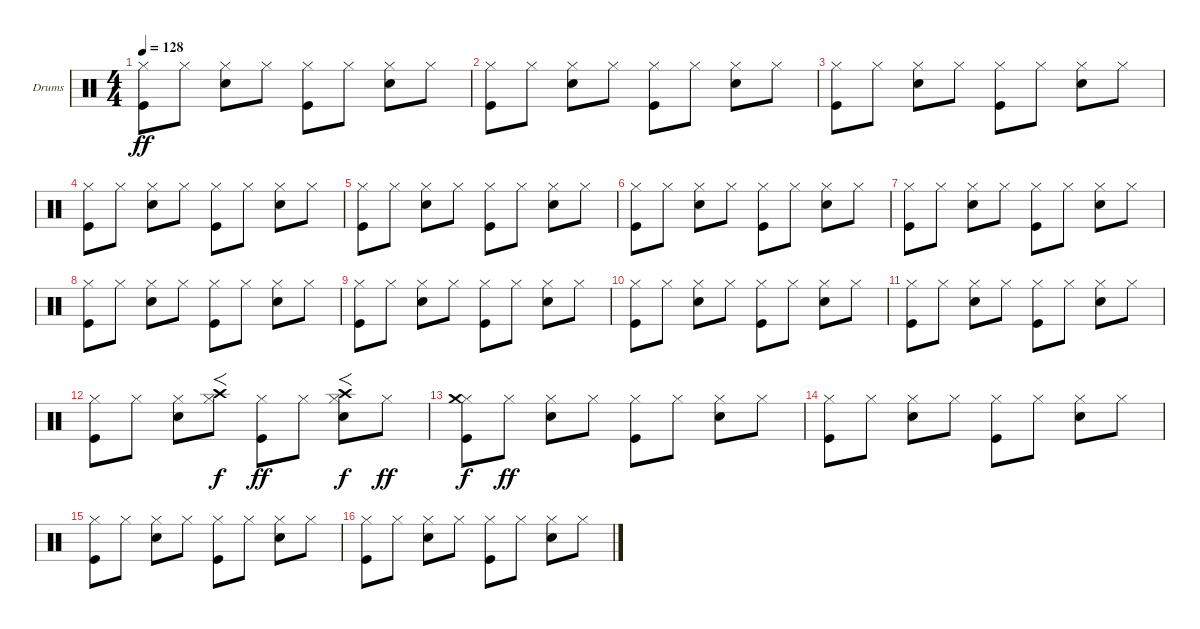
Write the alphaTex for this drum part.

\defaultSystemsLayout 4
\bracketExtendMode groupsimilarinstruments
\firstSystemTrackNameOrientation horizontal
\otherSystemsTrackNameOrientation horizontal
\track ("Drums" "Drums") {instrument percussion}
\staff {score}
\articulation defaults
\ts (4 4)
\tempo 128
\clef neutral
\ks c
("Kick (hit)" "Hi-Hat (closed)").8{dy ff} "Hi-Hat (closed)".8 ("Snare (hit) 2" "Hi-Hat (closed)").8 "Hi-Hat (closed)".8 ("Hi-Hat (closed)" "Kick (hit)").8 "Hi-Hat (closed)".8 ("Snare (hit) 2" "Hi-Hat (closed)").8 "Hi-Hat (closed)".8 |
("Kick (hit)" "Hi-Hat (closed)").8 "Hi-Hat (closed)".8 ("Snare (hit) 2" "Hi-Hat (closed)").8 "Hi-Hat (closed)".8 ("Kick (hit)" "Hi-Hat (closed)").8 "Hi-Hat (closed)".8 ("Snare (hit) 2" "Hi-Hat (closed)").8 "Hi-Hat (closed)".8 |
("Kick (hit)" "Hi-Hat (closed)").8 "Hi-Hat (closed)".8 ("Snare (hit) 2" "Hi-Hat (closed)").8 "Hi-Hat (closed)".8 ("Hi-Hat (closed)" "Kick (hit)").8 "Hi-Hat (closed)".8 ("Snare (hit) 2" "Hi-Hat (closed)").8 "Hi-Hat (closed)".8 |
("Kick (hit)" "Hi-Hat (closed)").8 "Hi-Hat (closed)".8 ("Snare (hit) 2" "Hi-Hat (closed)").8 "Hi-Hat (closed)".8 ("Kick (hit)" "Hi-Hat (closed)").8 "Hi-Hat (closed)".8 ("Snare (hit) 2" "Hi-Hat (closed)").8 "Hi-Hat (closed)".8 |
("Kick (hit)" "Hi-Hat (closed)").8 "Hi-Hat (closed)".8 ("Snare (hit) 2" "Hi-Hat (closed)").8 "Hi-Hat (closed)".8 ("Hi-Hat (closed)" "Kick (hit)").8 "Hi-Hat (closed)".8 ("Snare (hit) 2" "Hi-Hat (closed)").8 "Hi-Hat (closed)".8 |
("Kick (hit)" "Hi-Hat (closed)").8 "Hi-Hat (closed)".8 ("Snare (hit) 2" "Hi-Hat (closed)").8 "Hi-Hat (closed)".8 ("Kick (hit)" "Hi-Hat (closed)").8 "Hi-Hat (closed)".8 ("Snare (hit) 2" "Hi-Hat (closed)").8 "Hi-Hat (closed)".8 |
("Kick (hit)" "Hi-Hat (closed)").8 "Hi-Hat (closed)".8 ("Snare (hit) 2" "Hi-Hat (closed)").8 "Hi-Hat (closed)".8 ("Hi-Hat (closed)" "Kick (hit)").8 "Hi-Hat (closed)".8 ("Snare (hit) 2" "Hi-Hat (closed)").8 "Hi-Hat (closed)".8 |
("Kick (hit)" "Hi-Hat (closed)").8 "Hi-Hat (closed)".8 ("Snare (hit) 2" "Hi-Hat (closed)").8 "Hi-Hat (closed)".8 ("Kick (hit)" "Hi-Hat (closed)").8 "Hi-Hat (closed)".8 ("Snare (hit) 2" "Hi-Hat (closed)").8 "Hi-Hat (closed)".8 |
("Kick (hit)" "Hi-Hat (closed)").8 "Hi-Hat (closed)".8 ("Snare (hit) 2" "Hi-Hat (closed)").8 "Hi-Hat (closed)".8 ("Hi-Hat (closed)" "Kick (hit)").8 "Hi-Hat (closed)".8 ("Snare (hit) 2" "Hi-Hat (closed)").8 "Hi-Hat (closed)".8 |
("Kick (hit)" "Hi-Hat (closed)").8 "Hi-Hat (closed)".8 ("Snare (hit) 2" "Hi-Hat (closed)").8 "Hi-Hat (closed)".8 ("Kick (hit)" "Hi-Hat (closed)").8 "Hi-Hat (closed)".8 ("Snare (hit) 2" "Hi-Hat (closed)").8 "Hi-Hat (closed)".8 |
("Kick (hit)" "Hi-Hat (closed)").8 "Hi-Hat (closed)".8 ("Snare (hit) 2" "Hi-Hat (closed)").8 "Hi-Hat (closed)".8 ("Hi-Hat (closed)" "Kick (hit)").8 "Hi-Hat (closed)".8 ("Snare (hit) 2" "Hi-Hat (closed)").8 "Hi-Hat (closed)".8 |
("Kick (hit)" "Hi-Hat (closed)").8 "Hi-Hat (closed)".8 ("Snare (hit) 2" "Hi-Hat (closed)").8 ("Hi-Hat (closed)" "Crash high (hit)").8{f dy f} ("Kick (hit)" "Hi-Hat (closed)").8{dy ff} "Hi-Hat (closed)".8 ("Snare (hit) 2" "Hi-Hat (closed)" "Crash high (hit)").8{f dy f} "Hi-Hat (closed)".8{dy ff} |
("Kick (hit)" "Hi-Hat (closed)" "Crash medium (hit)").8{dy f} "Hi-Hat (closed)".8{dy ff} ("Snare (hit) 2" "Hi-Hat (closed)").8 "Hi-Hat (closed)".8 ("Hi-Hat (closed)" "Kick (hit)").8 "Hi-Hat (closed)".8 ("Snare (hit) 2" "Hi-Hat (closed)").8 "Hi-Hat (closed)".8 |
("Kick (hit)" "Hi-Hat (closed)").8 "Hi-Hat (closed)".8 ("Snare (hit) 2" "Hi-Hat (closed)").8 "Hi-Hat (closed)".8 ("Kick (hit)" "Hi-Hat (closed)").8 "Hi-Hat (closed)".8 ("Snare (hit) 2" "Hi-Hat (closed)").8 "Hi-Hat (closed)".8 |
("Kick (hit)" "Hi-Hat (closed)").8 "Hi-Hat (closed)".8 ("Snare (hit) 2" "Hi-Hat (closed)").8 "Hi-Hat (closed)".8 ("Hi-Hat (closed)" "Kick (hit)").8 "Hi-Hat (closed)".8 ("Snare (hit) 2" "Hi-Hat (closed)").8 "Hi-Hat (closed)".8 |
("Kick (hit)" "Hi-Hat (closed)").8 "Hi-Hat (closed)".8 ("Snare (hit) 2" "Hi-Hat (closed)").8 "Hi-Hat (closed)".8 ("Kick (hit)" "Hi-Hat (closed)").8 "Hi-Hat (closed)".8 ("Snare (hit) 2" "Hi-Hat (closed)").8 "Hi-Hat (closed)".8
